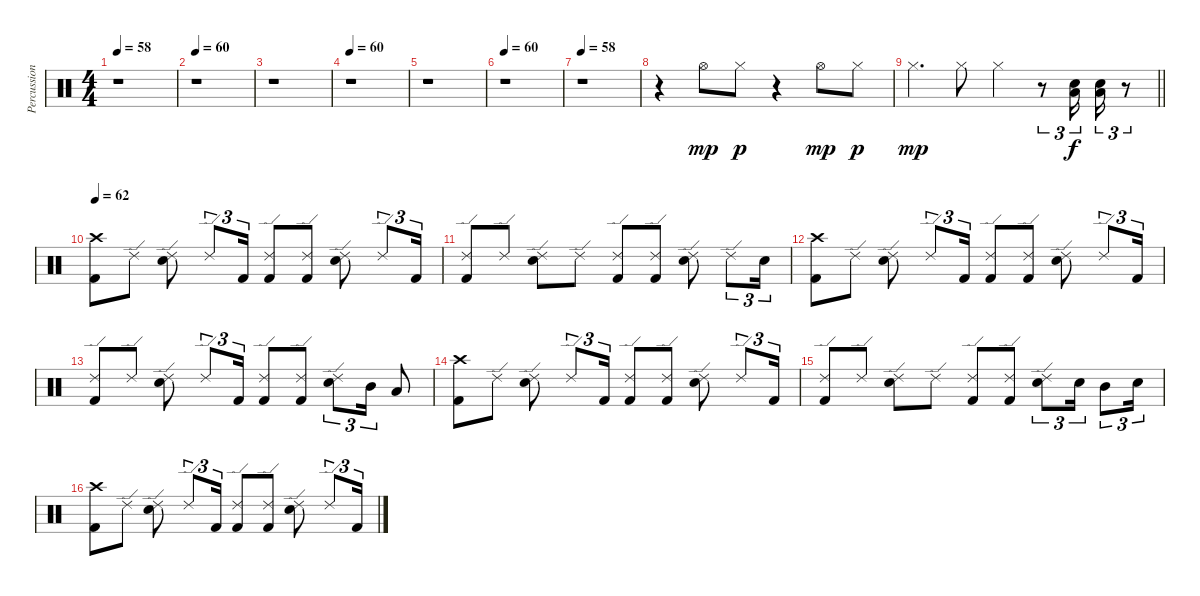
\track ("Percussion" "Percussion") {instrument percussion}
\staff {score}
\articulation defaults
\ts (4 4)
\tempo 58
\clef neutral
\ks c
r.1{dy f} |
\tempo 60
r.1 |
r.1 |
\tempo 60
r.1 |
r.1 |
\tempo 60
r.1 |
\tempo 58
r.1 |
r.4 "Hi-Hat (open)".8{dy mp} "Hi-Hat (closed)".8{dy p} r.4 "Hi-Hat (open)".8{dy mp} "Hi-Hat (closed)".8{dy p} |
\barLineRight lightlight "Hi-Hat (closed)".4{d dy mp} "Hi-Hat (closed)".8 "Hi-Hat (closed)".4
r.8{tu (3 2)} ("Electric Snare (hit)" "Low Tom (hit)").16{tu (3 2) dy f} ("Electric Snare (hit)" "Low Tom (hit)").16{tu (3 2)} r.8{tu (3 2)} |
\tempo 62
("Crash high (hit)" "Kick (hit) 2").8 "Ride (edge) 2".8 ("Ride (edge) 2" "Electric Snare (hit)").8 "Ride (edge) 2".8{tu (3 2)} "Kick (hit) 2".16{tu (3 2)} ("Ride (edge) 2" "Kick (hit) 2").8 ("Ride (edge) 2" "Kick (hit) 2").8 ("Ride (edge) 2" "Electric Snare (hit)").8 "Ride (edge) 2".8{tu (3 2)} "Kick (hit) 2".16{tu (3 2)} |
("Ride (edge) 2" "Kick (hit) 2").8 "Ride (edge) 2".8 ("Ride (edge) 2" "Electric Snare (hit)").8 "Ride (edge) 2".8 ("Ride (edge) 2" "Kick (hit) 2").8 ("Ride (edge) 2" "Kick (hit) 2").8 ("Ride (edge) 2" "Electric Snare (hit)").8 "Ride (edge) 2".8{tu (3 2)} "Electric Snare (hit)".16{tu (3 2)} |
("Crash high (hit)" "Kick (hit) 2").8 "Ride (edge) 2".8 ("Ride (edge) 2" "Electric Snare (hit)").8 "Ride (edge) 2".8{tu (3 2)} "Kick (hit) 2".16{tu (3 2)} ("Ride (edge) 2" "Kick (hit) 2").8 ("Ride (edge) 2" "Kick (hit) 2").8 ("Ride (edge) 2" "Electric Snare (hit)").8 "Ride (edge) 2".8{tu (3 2)} "Kick (hit) 2".16{tu (3 2)} |
("Ride (edge) 2" "Kick (hit) 2").8 "Ride (edge) 2".8 ("Ride (edge) 2" "Electric Snare (hit)").8 "Ride (edge) 2".8{tu (3 2)} "Kick (hit) 2".16{tu (3 2)} ("Ride (edge) 2" "Kick (hit) 2").8 ("Ride (edge) 2" "Kick (hit) 2").8 ("Ride (edge) 2" "Electric Snare (hit)").8{tu (3 2)} "Mid Tom (hit)".16{tu (3 2)} "Low Tom (hit)".8 |
("Crash high (hit)" "Kick (hit) 2").8 "Ride (edge) 2".8 ("Ride (edge) 2" "Electric Snare (hit)").8 "Ride (edge) 2".8{tu (3 2)} "Kick (hit) 2".16{tu (3 2)} ("Ride (edge) 2" "Kick (hit) 2").8 ("Ride (edge) 2" "Kick (hit) 2").8 ("Ride (edge) 2" "Electric Snare (hit)").8 "Ride (edge) 2".8{tu (3 2)} "Kick (hit) 2".16{tu (3 2)} |
("Ride (edge) 2" "Kick (hit) 2").8 "Ride (edge) 2".8 ("Ride (edge) 2" "Electric Snare (hit)").8 "Ride (edge) 2".8 ("Ride (edge) 2" "Kick (hit) 2").8 ("Ride (edge) 2" "Kick (hit) 2").8 ("Ride (edge) 2" "Electric Snare (hit)").8{tu (3 2)} "Electric Snare (hit)".16{tu (3 2)} "Mid Tom (hit)".8{tu (3 2)} "Electric Snare (hit)".16{tu (3 2)} |
("Crash high (hit)" "Kick (hit) 2").8 "Ride (edge) 2".8 ("Ride (edge) 2" "Electric Snare (hit)").8 "Ride (edge) 2".8{tu (3 2)} "Kick (hit) 2".16{tu (3 2)} ("Ride (edge) 2" "Kick (hit) 2").8 ("Ride (edge) 2" "Kick (hit) 2").8 ("Ride (edge) 2" "Electric Snare (hit)").8 "Ride (edge) 2".8{tu (3 2)} "Kick (hit) 2".16{tu (3 2)}
